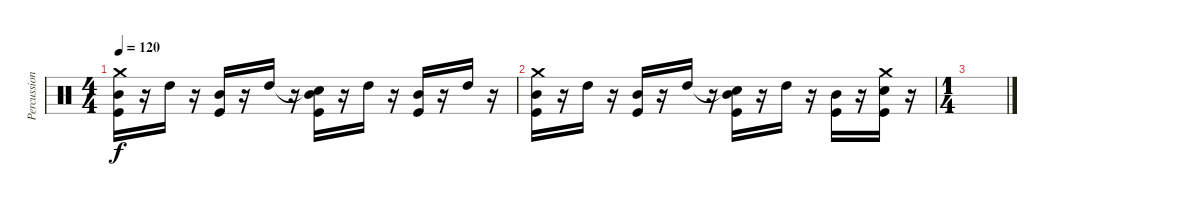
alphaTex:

\track ("Percussion" "Percussion") {instrument percussion}
\staff {score}
\articulation defaults
\ts (4 4)
\tempo 120
\clef neutral
\ks c
("Crash medium (hit)" "Mid Tom (hit)" "Kick (hit)").16{dy f} r.16 "High Tom (hit)".16 r.16 ("Mid Tom (hit)" "Kick (hit)").16 r.16 "High Tom (hit)".16 r.16 ("Snare (hit)"{t} "Mid Tom (hit)" "Kick (hit)").16 r.16 "High Tom (hit)".16 r.16 ("Mid Tom (hit)" "Kick (hit)").16 r.16 "High Tom (hit)".16 r.16 |
("Crash medium (hit)" "Mid Tom (hit)" "Kick (hit)").16 r.16 "High Tom (hit)".16 r.16 ("Mid Tom (hit)" "Kick (hit)").16 r.16 "High Tom (hit)".16 r.16 ("Snare (hit)"{t} "Mid Tom (hit)" "Kick (hit)").16 r.16 "High Tom (hit)".16 r.16 ("Mid Tom (hit)" "Kick (hit)").16 r.16 ("Crash medium (hit)" "Electric Snare (hit)" "Kick (hit)").16 r.16 |
\ts (1 4)
